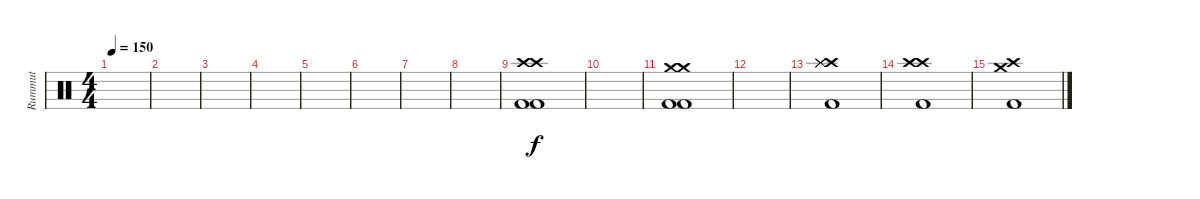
\track ("Rummut" "Rummut") {instrument percussion}
\staff {score}
\articulation defaults
\ts (4 4)
\tempo 150
\clef neutral
\ks c
|
|
|
|
|
|
|
|
("Crash high (hit)" "Crash high (hit)" "Kick (hit) 2" "Kick (hit) 2").1 |
|
("Crash medium (hit)" "Crash medium (hit)" "Kick (hit) 2" "Kick (hit) 2").1 |
|
("Crash high (hit)" "Splash (hit)" "Splash (hit)" "Splash (hit)" "Kick (hit) 2").1 |
("Crash high (hit)" "Crash high (hit)" "Kick (hit) 2").1 |
("Crash high (hit)" "Crash medium (hit)" "Kick (hit) 2").1
